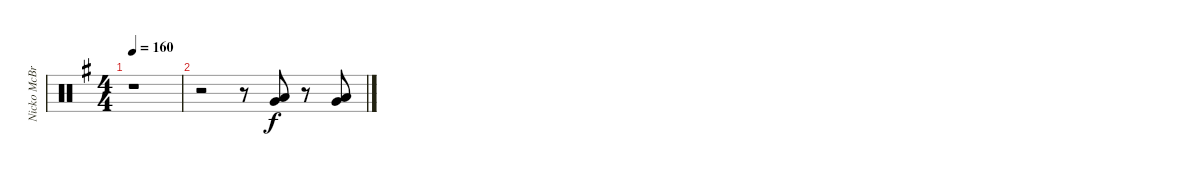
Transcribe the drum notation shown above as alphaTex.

\track ("Nicko McBrain" "Nicko McBr") {instrument percussion}
\staff {score}
\articulation defaults
\ts (4 4)
\tempo 160
\clef neutral
\ks g
r.1{dy f} |
r.2 r.8 ("Very Low Tom (hit)" "Low Floor Tom (hit)").8 r.8 ("Very Low Tom (hit)" "Low Floor Tom (hit)").8
